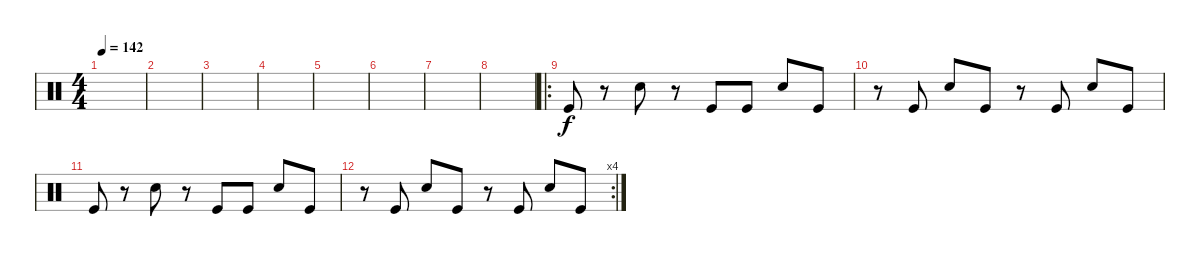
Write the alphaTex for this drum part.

\defaultSystemsLayout 4
\bracketExtendMode groupsimilarinstruments
\singleTrackTrackNamePolicy hidden
\multiTrackTrackNamePolicy hidden
\firstSystemTrackNameOrientation horizontal
\otherSystemsTrackNameOrientation horizontal
\track ("Drumkit" "Drums") {instrument percussion}
\staff {score}
\articulation defaults
\ts (4 4)
\tempo 142
\clef neutral
\scale
0.472222
\ks c
|
\scale
0.263889 |
\scale
0.263889 |
\scale
0.333333 |
\scale
0.333333 |
\scale
0.333333 |
\scale
0.311475 |
\scale
0.311475 |
\ro
\scale
0.377049 "Kick (hit)".8 r.8 "Snare (hit) 2".8 r.8 "Kick (hit)".8 "Kick (hit)".8 "Snare (hit) 2".8 "Kick (hit)".8 |
\scale
0.322034 r.8 "Kick (hit)".8 "Snare (hit) 2".8 "Kick (hit)".8 r.8 "Kick (hit)".8 "Snare (hit) 2".8 "Kick (hit)".8 |
\scale
0.322034 "Kick (hit)".8 r.8 "Snare (hit) 2".8 r.8 "Kick (hit)".8 "Kick (hit)".8 "Snare (hit) 2".8 "Kick (hit)".8 |
\rc 4
\scale
0.355932 r.8 "Kick (hit)".8 "Snare (hit) 2".8 "Kick (hit)".8 r.8 "Kick (hit)".8 "Snare (hit) 2".8 "Kick (hit)".8 |
\scale
0.333333 |
\scale
0.333333 |
\scale
0.333333 |
\scale
0.333333
